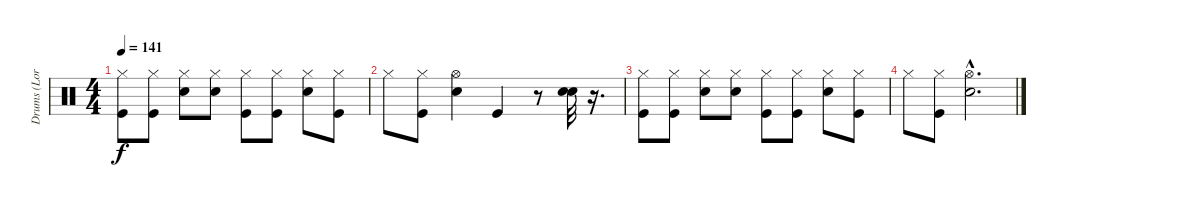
\track ("Drums (Lora)" "Drums (Lor") {instrument percussion}
\staff {score}
\articulation defaults
\ts (4 4)
\tempo 141
\clef neutral
\ks c
("Hi-Hat (closed)" "Kick (hit)").8{dy f} ("Hi-Hat (closed)" "Kick (hit)").8 ("Hi-Hat (closed)" "Snare (hit) 2").8 ("Hi-Hat (closed)" "Snare (hit) 2").8 ("Hi-Hat (closed)" "Kick (hit)").8 ("Hi-Hat (closed)" "Kick (hit)").8 ("Hi-Hat (closed)" "Snare (hit) 2").8 ("Hi-Hat (closed)" "Kick (hit)").8 |
"Hi-Hat (closed)".8 ("Hi-Hat (closed)" "Kick (hit)").8 ("Hi-Hat (open)" "Snare (hit) 2").4 "Kick (hit)".4 r.8 ("Snare (hit) 2" "Snare (hit) 2").32 r.16{d} |
("Hi-Hat (closed)" "Kick (hit)").8 ("Hi-Hat (closed)" "Kick (hit)").8 ("Hi-Hat (closed)" "Snare (hit) 2").8 ("Hi-Hat (closed)" "Snare (hit) 2").8 ("Hi-Hat (closed)" "Kick (hit)").8 ("Hi-Hat (closed)" "Kick (hit)").8 ("Hi-Hat (closed)" "Snare (hit) 2").8 ("Hi-Hat (closed)" "Kick (hit)").8 |
"Hi-Hat (closed)".8 ("Hi-Hat (closed)" "Kick (hit)").8 ("Hi-Hat (open)"{hac} "Snare (hit) 2"{hac}).2{d}
